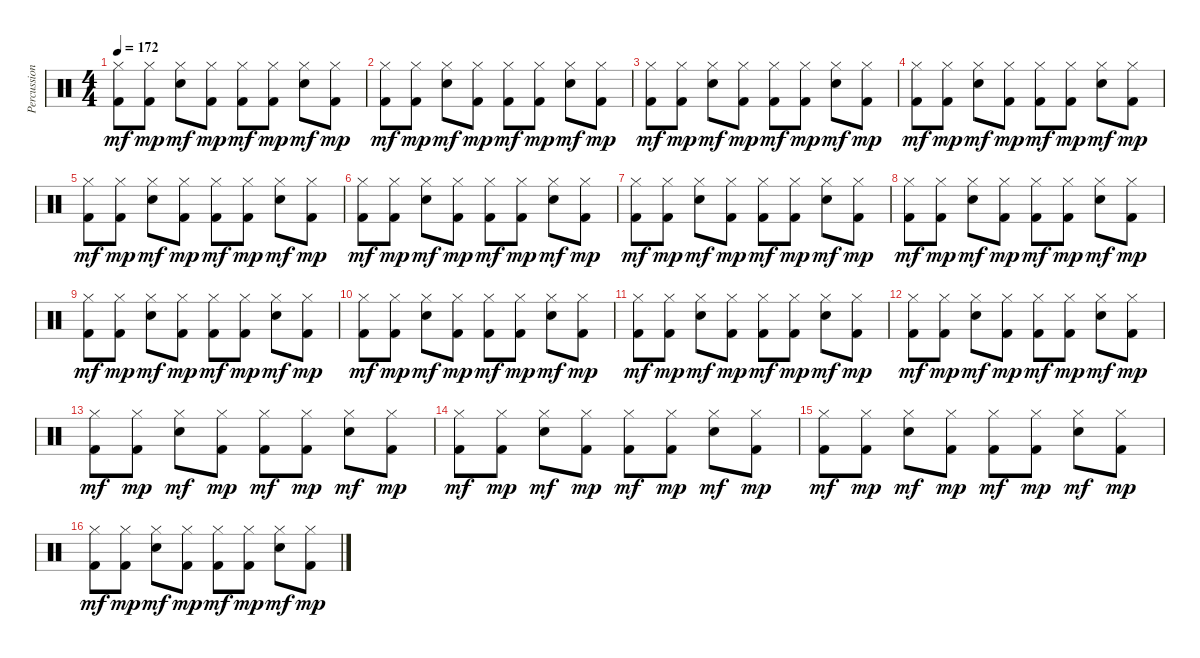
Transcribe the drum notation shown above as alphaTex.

\track ("Percussions" "Percussion") {instrument percussion}
\staff {score}
\articulation defaults
\ts (4 4)
\tempo 172
\clef neutral
\ks c
("Hi-Hat (closed)" "Kick (hit) 2").8{dy mf} ("Hi-Hat (closed)" "Kick (hit) 2").8{dy mp} ("Hi-Hat (closed)" "Snare (hit) 2").8{dy mf} ("Hi-Hat (closed)" "Kick (hit) 2").8{dy mp} ("Hi-Hat (closed)" "Kick (hit) 2").8{dy mf} ("Hi-Hat (closed)" "Kick (hit) 2").8{dy mp} ("Hi-Hat (closed)" "Snare (hit) 2").8{dy mf} ("Hi-Hat (closed)" "Kick (hit) 2").8{dy mp} |
("Hi-Hat (closed)" "Kick (hit) 2").8{dy mf} ("Hi-Hat (closed)" "Kick (hit) 2").8{dy mp} ("Hi-Hat (closed)" "Snare (hit) 2").8{dy mf} ("Hi-Hat (closed)" "Kick (hit) 2").8{dy mp} ("Hi-Hat (closed)" "Kick (hit) 2").8{dy mf} ("Hi-Hat (closed)" "Kick (hit) 2").8{dy mp} ("Hi-Hat (closed)" "Snare (hit) 2").8{dy mf} ("Hi-Hat (closed)" "Kick (hit) 2").8{dy mp} |
("Hi-Hat (closed)" "Kick (hit) 2").8{dy mf} ("Hi-Hat (closed)" "Kick (hit) 2").8{dy mp} ("Hi-Hat (closed)" "Snare (hit) 2").8{dy mf} ("Hi-Hat (closed)" "Kick (hit) 2").8{dy mp} ("Hi-Hat (closed)" "Kick (hit) 2").8{dy mf} ("Hi-Hat (closed)" "Kick (hit) 2").8{dy mp} ("Hi-Hat (closed)" "Snare (hit) 2").8{dy mf} ("Hi-Hat (closed)" "Kick (hit) 2").8{dy mp} |
("Hi-Hat (closed)" "Kick (hit) 2").8{dy mf} ("Hi-Hat (closed)" "Kick (hit) 2").8{dy mp} ("Hi-Hat (closed)" "Snare (hit) 2").8{dy mf} ("Hi-Hat (closed)" "Kick (hit) 2").8{dy mp} ("Hi-Hat (closed)" "Kick (hit) 2").8{dy mf} ("Hi-Hat (closed)" "Kick (hit) 2").8{dy mp} ("Hi-Hat (closed)" "Snare (hit) 2").8{dy mf} ("Hi-Hat (closed)" "Kick (hit) 2").8{dy mp} |
("Hi-Hat (closed)" "Kick (hit) 2").8{dy mf} ("Hi-Hat (closed)" "Kick (hit) 2").8{dy mp} ("Hi-Hat (closed)" "Snare (hit) 2").8{dy mf} ("Hi-Hat (closed)" "Kick (hit) 2").8{dy mp} ("Hi-Hat (closed)" "Kick (hit) 2").8{dy mf} ("Hi-Hat (closed)" "Kick (hit) 2").8{dy mp} ("Hi-Hat (closed)" "Snare (hit) 2").8{dy mf} ("Hi-Hat (closed)" "Kick (hit) 2").8{dy mp} |
("Hi-Hat (closed)" "Kick (hit) 2").8{dy mf} ("Hi-Hat (closed)" "Kick (hit) 2").8{dy mp} ("Hi-Hat (closed)" "Snare (hit) 2").8{dy mf} ("Hi-Hat (closed)" "Kick (hit) 2").8{dy mp} ("Hi-Hat (closed)" "Kick (hit) 2").8{dy mf} ("Hi-Hat (closed)" "Kick (hit) 2").8{dy mp} ("Hi-Hat (closed)" "Snare (hit) 2").8{dy mf} ("Hi-Hat (closed)" "Kick (hit) 2").8{dy mp} |
("Hi-Hat (closed)" "Kick (hit) 2").8{dy mf} ("Hi-Hat (closed)" "Kick (hit) 2").8{dy mp} ("Hi-Hat (closed)" "Snare (hit) 2").8{dy mf} ("Hi-Hat (closed)" "Kick (hit) 2").8{dy mp} ("Hi-Hat (closed)" "Kick (hit) 2").8{dy mf} ("Hi-Hat (closed)" "Kick (hit) 2").8{dy mp} ("Hi-Hat (closed)" "Snare (hit) 2").8{dy mf} ("Hi-Hat (closed)" "Kick (hit) 2").8{dy mp} |
("Hi-Hat (closed)" "Kick (hit) 2").8{dy mf} ("Hi-Hat (closed)" "Kick (hit) 2").8{dy mp} ("Hi-Hat (closed)" "Snare (hit) 2").8{dy mf} ("Hi-Hat (closed)" "Kick (hit) 2").8{dy mp} ("Hi-Hat (closed)" "Kick (hit) 2").8{dy mf} ("Hi-Hat (closed)" "Kick (hit) 2").8{dy mp} ("Hi-Hat (closed)" "Snare (hit) 2").8{dy mf} ("Hi-Hat (closed)" "Kick (hit) 2").8{dy mp} |
("Hi-Hat (closed)" "Kick (hit) 2").8{dy mf} ("Hi-Hat (closed)" "Kick (hit) 2").8{dy mp} ("Hi-Hat (closed)" "Snare (hit) 2").8{dy mf} ("Hi-Hat (closed)" "Kick (hit) 2").8{dy mp} ("Hi-Hat (closed)" "Kick (hit) 2").8{dy mf} ("Hi-Hat (closed)" "Kick (hit) 2").8{dy mp} ("Hi-Hat (closed)" "Snare (hit) 2").8{dy mf} ("Hi-Hat (closed)" "Kick (hit) 2").8{dy mp} |
("Hi-Hat (closed)" "Kick (hit) 2").8{dy mf} ("Hi-Hat (closed)" "Kick (hit) 2").8{dy mp} ("Hi-Hat (closed)" "Snare (hit) 2").8{dy mf} ("Hi-Hat (closed)" "Kick (hit) 2").8{dy mp} ("Hi-Hat (closed)" "Kick (hit) 2").8{dy mf} ("Hi-Hat (closed)" "Kick (hit) 2").8{dy mp} ("Hi-Hat (closed)" "Snare (hit) 2").8{dy mf} ("Hi-Hat (closed)" "Kick (hit) 2").8{dy mp} |
("Hi-Hat (closed)" "Kick (hit) 2").8{dy mf} ("Hi-Hat (closed)" "Kick (hit) 2").8{dy mp} ("Hi-Hat (closed)" "Snare (hit) 2").8{dy mf} ("Hi-Hat (closed)" "Kick (hit) 2").8{dy mp} ("Hi-Hat (closed)" "Kick (hit) 2").8{dy mf} ("Hi-Hat (closed)" "Kick (hit) 2").8{dy mp} ("Hi-Hat (closed)" "Snare (hit) 2").8{dy mf} ("Hi-Hat (closed)" "Kick (hit) 2").8{dy mp} |
("Hi-Hat (closed)" "Kick (hit) 2").8{dy mf} ("Hi-Hat (closed)" "Kick (hit) 2").8{dy mp} ("Hi-Hat (closed)" "Snare (hit) 2").8{dy mf} ("Hi-Hat (closed)" "Kick (hit) 2").8{dy mp} ("Hi-Hat (closed)" "Kick (hit) 2").8{dy mf} ("Hi-Hat (closed)" "Kick (hit) 2").8{dy mp} ("Hi-Hat (closed)" "Snare (hit) 2").8{dy mf} ("Hi-Hat (closed)" "Kick (hit) 2").8{dy mp} |
("Hi-Hat (closed)" "Kick (hit) 2").8{dy mf} ("Hi-Hat (closed)" "Kick (hit) 2").8{dy mp} ("Hi-Hat (closed)" "Snare (hit) 2").8{dy mf} ("Hi-Hat (closed)" "Kick (hit) 2").8{dy mp} ("Hi-Hat (closed)" "Kick (hit) 2").8{dy mf} ("Hi-Hat (closed)" "Kick (hit) 2").8{dy mp} ("Hi-Hat (closed)" "Snare (hit) 2").8{dy mf} ("Hi-Hat (closed)" "Kick (hit) 2").8{dy mp} |
("Hi-Hat (closed)" "Kick (hit) 2").8{dy mf} ("Hi-Hat (closed)" "Kick (hit) 2").8{dy mp} ("Hi-Hat (closed)" "Snare (hit) 2").8{dy mf} ("Hi-Hat (closed)" "Kick (hit) 2").8{dy mp} ("Hi-Hat (closed)" "Kick (hit) 2").8{dy mf} ("Hi-Hat (closed)" "Kick (hit) 2").8{dy mp} ("Hi-Hat (closed)" "Snare (hit) 2").8{dy mf} ("Hi-Hat (closed)" "Kick (hit) 2").8{dy mp} |
("Hi-Hat (closed)" "Kick (hit) 2").8{dy mf} ("Hi-Hat (closed)" "Kick (hit) 2").8{dy mp} ("Hi-Hat (closed)" "Snare (hit) 2").8{dy mf} ("Hi-Hat (closed)" "Kick (hit) 2").8{dy mp} ("Hi-Hat (closed)" "Kick (hit) 2").8{dy mf} ("Hi-Hat (closed)" "Kick (hit) 2").8{dy mp} ("Hi-Hat (closed)" "Snare (hit) 2").8{dy mf} ("Hi-Hat (closed)" "Kick (hit) 2").8{dy mp} |
("Hi-Hat (closed)" "Kick (hit) 2").8{dy mf} ("Hi-Hat (closed)" "Kick (hit) 2").8{dy mp} ("Hi-Hat (closed)" "Snare (hit) 2").8{dy mf} ("Hi-Hat (closed)" "Kick (hit) 2").8{dy mp} ("Hi-Hat (closed)" "Kick (hit) 2").8{dy mf} ("Hi-Hat (closed)" "Kick (hit) 2").8{dy mp} ("Hi-Hat (closed)" "Snare (hit) 2").8{dy mf} ("Hi-Hat (closed)" "Kick (hit) 2").8{dy mp}
